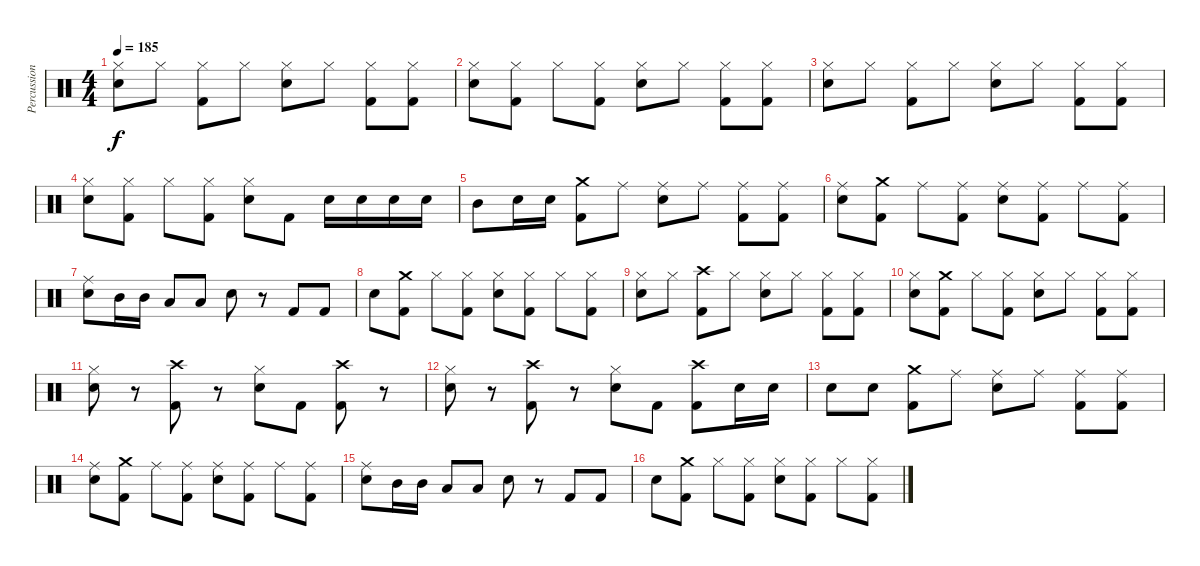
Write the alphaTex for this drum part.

\track ("Percussion" "Percussion") {instrument percussion}
\staff {score}
\articulation defaults
\ts (4 4)
\tempo 185
\clef neutral
\ks c
("Hi-Hat (closed)" "Electric Snare (hit)").8{dy f} "Hi-Hat (closed)".8 ("Hi-Hat (closed)" "Kick (hit) 2").8 "Hi-Hat (closed)".8 ("Hi-Hat (closed)" "Electric Snare (hit)").8 "Hi-Hat (closed)".8 ("Hi-Hat (closed)" "Kick (hit) 2").8 ("Hi-Hat (closed)" "Kick (hit) 2").8 |
("Hi-Hat (closed)" "Electric Snare (hit)").8 ("Hi-Hat (closed)" "Kick (hit) 2").8 "Hi-Hat (closed)".8 ("Hi-Hat (closed)" "Kick (hit) 2").8 ("Hi-Hat (closed)" "Electric Snare (hit)").8 "Hi-Hat (closed)".8 ("Hi-Hat (closed)" "Kick (hit) 2").8 ("Hi-Hat (closed)" "Kick (hit) 2").8 |
("Hi-Hat (closed)" "Electric Snare (hit)").8 "Hi-Hat (closed)".8 ("Hi-Hat (closed)" "Kick (hit) 2").8 "Hi-Hat (closed)".8 ("Hi-Hat (closed)" "Electric Snare (hit)").8 "Hi-Hat (closed)".8 ("Hi-Hat (closed)" "Kick (hit) 2").8 ("Hi-Hat (closed)" "Kick (hit) 2").8 |
("Hi-Hat (closed)" "Electric Snare (hit)").8 ("Hi-Hat (closed)" "Kick (hit) 2").8 "Hi-Hat (closed)".8 ("Hi-Hat (closed)" "Kick (hit) 2").8 ("Hi-Hat (closed)" "Electric Snare (hit)").8 "Kick (hit) 2".8 "Electric Snare (hit)".16 "Electric Snare (hit)".16 "Electric Snare (hit)".16 "Electric Snare (hit)".16 |
"Mid Tom (hit)".8 "Electric Snare (hit)".16 "Electric Snare (hit)".16 ("Crash medium (hit)" "Kick (hit) 2").8 "Ride (middle)".8 ("Ride (middle)" "Electric Snare (hit)").8 "Ride (middle)".8 ("Ride (middle)" "Kick (hit) 2").8 ("Ride (middle)" "Kick (hit) 2").8 |
("Ride (middle)" "Electric Snare (hit)").8 ("Crash medium (hit)" "Kick (hit) 2").8 "Ride (middle)".8 ("Ride (middle)" "Kick (hit) 2").8 ("Ride (middle)" "Electric Snare (hit)").8 ("Ride (middle)" "Kick (hit) 2").8 "Ride (middle)".8 ("Ride (middle)" "Kick (hit) 2").8 |
("Ride (middle)" "Electric Snare (hit)").8 "Mid Tom (hit)".16 "Mid Tom (hit)".16 "Low Tom (hit)".8 "Low Tom (hit)".8 "Electric Snare (hit)".8 r.8 "Kick (hit) 2".8 "Kick (hit) 2".8 |
"Electric Snare (hit)".8 ("Crash medium (hit)" "Kick (hit) 2").8 "Hi-Hat (closed)".8 ("Hi-Hat (closed)" "Kick (hit) 2").8 ("Hi-Hat (closed)" "Electric Snare (hit)").8 ("Hi-Hat (closed)" "Kick (hit) 2").8 "Hi-Hat (closed)".8 ("Hi-Hat (closed)" "Kick (hit) 2").8 |
("Hi-Hat (closed)" "Electric Snare (hit)").8 "Hi-Hat (closed)".8 ("Crash high (hit)" "Kick (hit) 2").8 "Hi-Hat (closed)".8 ("Hi-Hat (closed)" "Electric Snare (hit)").8 "Hi-Hat (closed)".8 ("Hi-Hat (closed)" "Kick (hit) 2").8 ("Hi-Hat (closed)" "Kick (hit) 2").8 |
("Hi-Hat (closed)" "Electric Snare (hit)").8 ("Crash medium (hit)" "Kick (hit) 2").8 "Hi-Hat (closed)".8 ("Hi-Hat (closed)" "Kick (hit) 2").8 ("Hi-Hat (closed)" "Electric Snare (hit)").8 "Hi-Hat (closed)".8 ("Hi-Hat (closed)" "Kick (hit) 2").8 ("Hi-Hat (closed)" "Kick (hit) 2").8 |
("Hi-Hat (closed)" "Electric Snare (hit)").8 r.8 ("Crash high (hit)" "Kick (hit) 2").8 r.8 ("Hi-Hat (closed)" "Electric Snare (hit)").8 "Kick (hit) 2".8 ("Crash high (hit)" "Kick (hit) 2").8 r.8 |
("Hi-Hat (closed)" "Electric Snare (hit)").8 r.8 ("Crash high (hit)" "Kick (hit) 2").8 r.8 ("Hi-Hat (closed)" "Electric Snare (hit)").8 "Kick (hit) 2".8 ("Crash high (hit)" "Kick (hit) 2").8 "Electric Snare (hit)".16 "Electric Snare (hit)".16 |
"Electric Snare (hit)".8 "Electric Snare (hit)".8 ("Crash medium (hit)" "Kick (hit) 2").8 "Ride (middle)".8 ("Ride (middle)" "Electric Snare (hit)").8 "Ride (middle)".8 ("Ride (middle)" "Kick (hit) 2").8 ("Ride (middle)" "Kick (hit) 2").8 |
("Ride (middle)" "Electric Snare (hit)").8 ("Crash medium (hit)" "Kick (hit) 2").8 "Ride (middle)".8 ("Ride (middle)" "Kick (hit) 2").8 ("Ride (middle)" "Electric Snare (hit)").8 ("Ride (middle)" "Kick (hit) 2").8 "Ride (middle)".8 ("Ride (middle)" "Kick (hit) 2").8 |
("Ride (middle)" "Electric Snare (hit)").8 "Mid Tom (hit)".16 "Mid Tom (hit)".16 "Low Tom (hit)".8 "Low Tom (hit)".8 "Electric Snare (hit)".8 r.8 "Kick (hit) 2".8 "Kick (hit) 2".8 |
"Electric Snare (hit)".8 ("Crash medium (hit)" "Kick (hit) 2").8 "Hi-Hat (closed)".8 ("Hi-Hat (closed)" "Kick (hit) 2").8 ("Hi-Hat (closed)" "Electric Snare (hit)").8 ("Hi-Hat (closed)" "Kick (hit) 2").8 "Hi-Hat (closed)".8 ("Hi-Hat (closed)" "Kick (hit) 2").8
